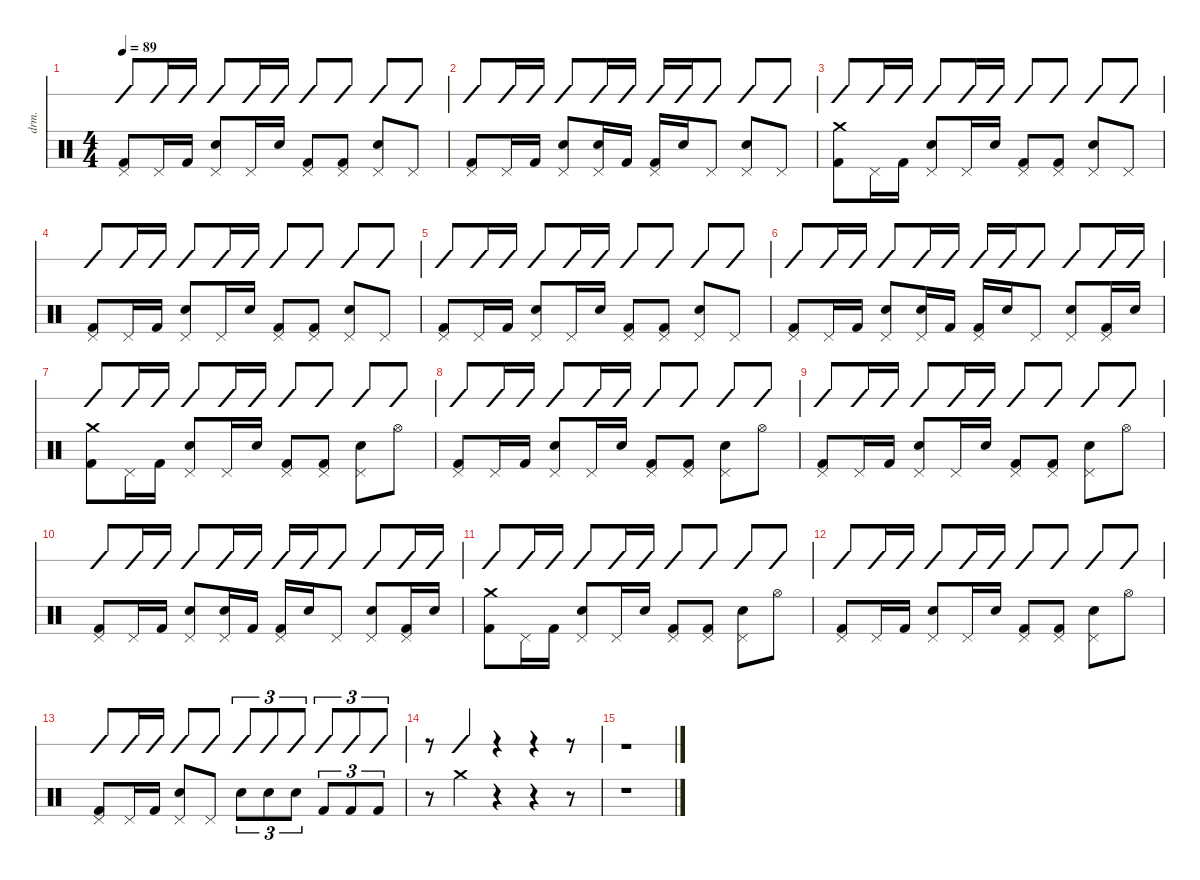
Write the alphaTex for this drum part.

\defaultSystemsLayout 4
\hideDynamics
\bracketExtendMode nobrackets
\otherSystemsTrackNameOrientation horizontal
\track ("Drumkit" "drm.") {instrument percussion}
\staff {score slash}
\articulation defaults
\ts (4 4)
\tempo 89
\clef neutral
\ks c
("Pedal Hi-Hat (hit)" "Kick (hit) 2").8{dy f beam Up} "Pedal Hi-Hat (hit)".16{beam Up} "Kick (hit) 2".16{beam Up} ("Pedal Hi-Hat (hit)" "Snare (hit) 2").8{beam Up} "Pedal Hi-Hat (hit)".16{beam Up} "Snare (hit) 2".16{beam Up} ("Pedal Hi-Hat (hit)" "Kick (hit) 2").8{beam Up} ("Pedal Hi-Hat (hit)" "Kick (hit) 2").8{beam Up} ("Pedal Hi-Hat (hit)" "Snare (hit) 2").8{beam Up} "Pedal Hi-Hat (hit)".8{beam Up} |
("Pedal Hi-Hat (hit)" "Kick (hit) 2").8{beam Up} "Pedal Hi-Hat (hit)".16{beam Up} "Kick (hit) 2".16{beam Up} ("Pedal Hi-Hat (hit)" "Snare (hit) 2").8{beam Up} ("Pedal Hi-Hat (hit)" "Snare (hit) 2").16{beam Up} "Kick (hit) 2".16{beam Up} ("Pedal Hi-Hat (hit)" "Kick (hit) 2").16{beam Up} "Snare (hit) 2".16{beam Up} "Pedal Hi-Hat (hit)".8{beam Up} ("Pedal Hi-Hat (hit)" "Snare (hit) 2").8{beam Up} "Pedal Hi-Hat (hit)".8{beam Up} |
("Crash medium (hit)" "Kick (hit) 2").8{beam Down} "Pedal Hi-Hat (hit)".16{beam Down} "Kick (hit) 2".16{beam Down} ("Pedal Hi-Hat (hit)" "Snare (hit) 2").8{beam Up} "Pedal Hi-Hat (hit)".16{beam Up} "Snare (hit) 2".16{beam Up} ("Pedal Hi-Hat (hit)" "Kick (hit) 2").8{beam Up} ("Pedal Hi-Hat (hit)" "Kick (hit) 2").8{beam Up} ("Pedal Hi-Hat (hit)" "Snare (hit) 2").8{beam Up} "Pedal Hi-Hat (hit)".8{beam Up} |
("Pedal Hi-Hat (hit)" "Kick (hit) 2").8{beam Up} "Pedal Hi-Hat (hit)".16{beam Up} "Kick (hit) 2".16{beam Up} ("Pedal Hi-Hat (hit)" "Snare (hit) 2").8{beam Up} "Pedal Hi-Hat (hit)".16{beam Up} "Snare (hit) 2".16{beam Up} ("Pedal Hi-Hat (hit)" "Kick (hit) 2").8{beam Up} ("Pedal Hi-Hat (hit)" "Kick (hit) 2").8{beam Up} ("Pedal Hi-Hat (hit)" "Snare (hit) 2").8{beam Up} "Pedal Hi-Hat (hit)".8{beam Up} |
("Pedal Hi-Hat (hit)" "Kick (hit) 2").8{beam Up} "Pedal Hi-Hat (hit)".16{beam Up} "Kick (hit) 2".16{beam Up} ("Pedal Hi-Hat (hit)" "Snare (hit) 2").8{beam Up} "Pedal Hi-Hat (hit)".16{beam Up} "Snare (hit) 2".16{beam Up} ("Pedal Hi-Hat (hit)" "Kick (hit) 2").8{beam Up} ("Pedal Hi-Hat (hit)" "Kick (hit) 2").8{beam Up} ("Pedal Hi-Hat (hit)" "Snare (hit) 2").8{beam Up} "Pedal Hi-Hat (hit)".8{beam Up} |
("Pedal Hi-Hat (hit)" "Kick (hit) 2").8{beam Up} "Pedal Hi-Hat (hit)".16{beam Up} "Kick (hit) 2".16{beam Up} ("Pedal Hi-Hat (hit)" "Snare (hit) 2").8{beam Up} ("Pedal Hi-Hat (hit)" "Snare (hit) 2").16{beam Up} "Kick (hit) 2".16{beam Up} ("Pedal Hi-Hat (hit)" "Kick (hit) 2").16{beam Up} "Snare (hit) 2".16{beam Up} "Pedal Hi-Hat (hit)".8{beam Up} ("Pedal Hi-Hat (hit)" "Snare (hit) 2").8{beam Up} ("Pedal Hi-Hat (hit)" "Kick (hit) 2").16{beam Up} "Snare (hit) 2".16{beam Up} |
("Crash medium (hit)" "Kick (hit) 2").8{beam Down} "Pedal Hi-Hat (hit)".16{beam Down} "Kick (hit) 2".16{beam Down} ("Pedal Hi-Hat (hit)" "Snare (hit) 2").8{beam Up} "Pedal Hi-Hat (hit)".16{beam Up} "Snare (hit) 2".16{beam Up} ("Pedal Hi-Hat (hit)" "Kick (hit) 2").8{beam Up} ("Pedal Hi-Hat (hit)" "Kick (hit) 2").8{beam Up} ("Pedal Hi-Hat (hit)" "Snare (hit) 2").8{beam Down} "Hi-Hat (open)".8{beam Down} |
("Pedal Hi-Hat (hit)" "Kick (hit) 2").8{beam Up} "Pedal Hi-Hat (hit)".16{beam Up} "Kick (hit) 2".16{beam Up} ("Pedal Hi-Hat (hit)" "Snare (hit) 2").8{beam Up} "Pedal Hi-Hat (hit)".16{beam Up} "Snare (hit) 2".16{beam Up} ("Pedal Hi-Hat (hit)" "Kick (hit) 2").8{beam Up} ("Pedal Hi-Hat (hit)" "Kick (hit) 2").8{beam Up} ("Pedal Hi-Hat (hit)" "Snare (hit) 2").8{beam Down} "Hi-Hat (open)".8{beam Down} |
("Pedal Hi-Hat (hit)" "Kick (hit) 2").8{beam Up} "Pedal Hi-Hat (hit)".16{beam Up} "Kick (hit) 2".16{beam Up} ("Pedal Hi-Hat (hit)" "Snare (hit) 2").8{beam Up} "Pedal Hi-Hat (hit)".16{beam Up} "Snare (hit) 2".16{beam Up} ("Pedal Hi-Hat (hit)" "Kick (hit) 2").8{beam Up} ("Pedal Hi-Hat (hit)" "Kick (hit) 2").8{beam Up} ("Pedal Hi-Hat (hit)" "Snare (hit) 2").8{beam Down} "Hi-Hat (open)".8{beam Down} |
("Pedal Hi-Hat (hit)" "Kick (hit) 2").8{beam Up} "Pedal Hi-Hat (hit)".16{beam Up} "Kick (hit) 2".16{beam Up} ("Pedal Hi-Hat (hit)" "Snare (hit) 2").8{beam Up} ("Pedal Hi-Hat (hit)" "Snare (hit) 2").16{beam Up} "Kick (hit) 2".16{beam Up} ("Pedal Hi-Hat (hit)" "Kick (hit) 2").16{beam Up} "Snare (hit) 2".16{beam Up} "Pedal Hi-Hat (hit)".8{beam Up} ("Pedal Hi-Hat (hit)" "Snare (hit) 2").8{beam Up} ("Pedal Hi-Hat (hit)" "Kick (hit) 2").16{beam Up} "Snare (hit) 2".16{beam Up} |
("Crash medium (hit)" "Kick (hit) 2").8{beam Down} "Pedal Hi-Hat (hit)".16{beam Down} "Kick (hit) 2".16{beam Down} ("Pedal Hi-Hat (hit)" "Snare (hit) 2").8{beam Up} "Pedal Hi-Hat (hit)".16{beam Up} "Snare (hit) 2".16{beam Up} ("Pedal Hi-Hat (hit)" "Kick (hit) 2").8{beam Up} ("Pedal Hi-Hat (hit)" "Kick (hit) 2").8{beam Up} ("Pedal Hi-Hat (hit)" "Snare (hit) 2").8{beam Down} "Hi-Hat (open)".8{beam Down} |
("Pedal Hi-Hat (hit)" "Kick (hit) 2").8{beam Up} "Pedal Hi-Hat (hit)".16{beam Up} "Kick (hit) 2".16{beam Up} ("Pedal Hi-Hat (hit)" "Snare (hit) 2").8{beam Up} "Pedal Hi-Hat (hit)".16{beam Up} "Snare (hit) 2".16{beam Up} ("Pedal Hi-Hat (hit)" "Kick (hit) 2").8{beam Up} ("Pedal Hi-Hat (hit)" "Kick (hit) 2").8{beam Up} ("Pedal Hi-Hat (hit)" "Snare (hit) 2").8{beam Down} "Hi-Hat (open)".8{beam Down} |
("Pedal Hi-Hat (hit)" "Kick (hit) 2").8{beam Up} "Pedal Hi-Hat (hit)".16{beam Up} "Kick (hit) 2".16{beam Up} ("Pedal Hi-Hat (hit)" "Snare (hit) 2").8{beam Up} "Pedal Hi-Hat (hit)".8{beam Up} "Snare (hit) 2".8{tu (3 2) beam Down} "Snare (hit) 2".8{tu (3 2) beam Down} "Snare (hit) 2".8{tu (3 2) beam Down} "Kick (hit) 2".8{tu (3 2) beam Up} "Kick (hit) 2".8{tu (3 2) beam Up} "Kick (hit) 2".8{tu (3 2) beam Up} |
r.8{beam Down} "Crash medium (hit)".4{beam Down} r.4{beam Down} r.4{beam Down} r.8{beam Down} |
r.1{beam Down}
